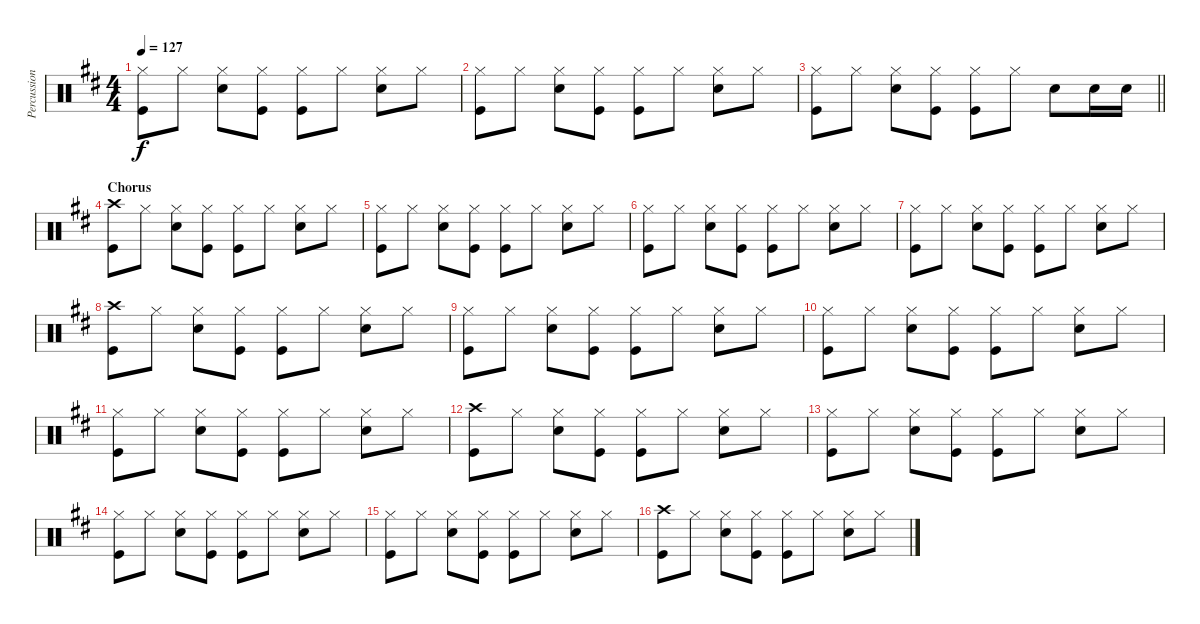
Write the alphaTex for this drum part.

\track ("Percussion" "Percussion") {instrument percussion}
\staff {score}
\articulation defaults
\ts (4 4)
\tempo 127
\clef neutral
\ks d
("Hi-Hat (closed)" "Kick (hit)").8{dy f} "Hi-Hat (closed)".8 ("Hi-Hat (closed)" "Snare (hit) 2").8 ("Hi-Hat (closed)" "Kick (hit)").8 ("Hi-Hat (closed)" "Kick (hit)").8 "Hi-Hat (closed)".8 ("Hi-Hat (closed)" "Snare (hit) 2").8 "Hi-Hat (closed)".8 |
("Hi-Hat (closed)" "Kick (hit)").8 "Hi-Hat (closed)".8 ("Hi-Hat (closed)" "Snare (hit) 2").8 ("Hi-Hat (closed)" "Kick (hit)").8 ("Hi-Hat (closed)" "Kick (hit)").8 "Hi-Hat (closed)".8 ("Hi-Hat (closed)" "Snare (hit) 2").8 "Hi-Hat (closed)".8 |
\barLineRight lightlight
("Hi-Hat (closed)" "Kick (hit)").8 "Hi-Hat (closed)".8 ("Hi-Hat (closed)" "Snare (hit) 2").8 ("Hi-Hat (closed)" "Kick (hit)").8 ("Hi-Hat (closed)" "Kick (hit)").8 "Hi-Hat (closed)".8 "Snare (hit) 2".8 "Snare (hit) 2".16 "Snare (hit) 2".16 |
\section ("" "Chorus")
("Crash high (hit)" "Kick (hit)").8 "Hi-Hat (closed)".8 ("Hi-Hat (closed)" "Snare (hit) 2").8 ("Hi-Hat (closed)" "Kick (hit)").8 ("Hi-Hat (closed)" "Kick (hit)").8 "Hi-Hat (closed)".8 ("Hi-Hat (closed)" "Snare (hit) 2").8 "Hi-Hat (closed)".8 |
("Hi-Hat (closed)" "Kick (hit)").8 "Hi-Hat (closed)".8 ("Hi-Hat (closed)" "Snare (hit) 2").8 ("Hi-Hat (closed)" "Kick (hit)").8 ("Hi-Hat (closed)" "Kick (hit)").8 "Hi-Hat (closed)".8 ("Hi-Hat (closed)" "Snare (hit) 2").8 "Hi-Hat (closed)".8 |
("Hi-Hat (closed)" "Kick (hit)").8 "Hi-Hat (closed)".8 ("Hi-Hat (closed)" "Snare (hit) 2").8 ("Hi-Hat (closed)" "Kick (hit)").8 ("Hi-Hat (closed)" "Kick (hit)").8 "Hi-Hat (closed)".8 ("Hi-Hat (closed)" "Snare (hit) 2").8 "Hi-Hat (closed)".8 |
("Hi-Hat (closed)" "Kick (hit)").8 "Hi-Hat (closed)".8 ("Hi-Hat (closed)" "Snare (hit) 2").8 ("Hi-Hat (closed)" "Kick (hit)").8 ("Hi-Hat (closed)" "Kick (hit)").8 "Hi-Hat (closed)".8 ("Hi-Hat (closed)" "Snare (hit) 2").8 "Hi-Hat (closed)".8 |
("Crash high (hit)" "Kick (hit)").8 "Hi-Hat (closed)".8 ("Hi-Hat (closed)" "Snare (hit) 2").8 ("Hi-Hat (closed)" "Kick (hit)").8 ("Hi-Hat (closed)" "Kick (hit)").8 "Hi-Hat (closed)".8 ("Hi-Hat (closed)" "Snare (hit) 2").8 "Hi-Hat (closed)".8 |
("Hi-Hat (closed)" "Kick (hit)").8 "Hi-Hat (closed)".8 ("Hi-Hat (closed)" "Snare (hit) 2").8 ("Hi-Hat (closed)" "Kick (hit)").8 ("Hi-Hat (closed)" "Kick (hit)").8 "Hi-Hat (closed)".8 ("Hi-Hat (closed)" "Snare (hit) 2").8 "Hi-Hat (closed)".8 |
("Hi-Hat (closed)" "Kick (hit)").8 "Hi-Hat (closed)".8 ("Hi-Hat (closed)" "Snare (hit) 2").8 ("Hi-Hat (closed)" "Kick (hit)").8 ("Hi-Hat (closed)" "Kick (hit)").8 "Hi-Hat (closed)".8 ("Hi-Hat (closed)" "Snare (hit) 2").8 "Hi-Hat (closed)".8 |
("Hi-Hat (closed)" "Kick (hit)").8 "Hi-Hat (closed)".8 ("Hi-Hat (closed)" "Snare (hit) 2").8 ("Hi-Hat (closed)" "Kick (hit)").8 ("Hi-Hat (closed)" "Kick (hit)").8 "Hi-Hat (closed)".8 ("Hi-Hat (closed)" "Snare (hit) 2").8 "Hi-Hat (closed)".8 |
("Crash high (hit)" "Kick (hit)").8 "Hi-Hat (closed)".8 ("Hi-Hat (closed)" "Snare (hit) 2").8 ("Hi-Hat (closed)" "Kick (hit)").8 ("Hi-Hat (closed)" "Kick (hit)").8 "Hi-Hat (closed)".8 ("Hi-Hat (closed)" "Snare (hit) 2").8 "Hi-Hat (closed)".8 |
("Hi-Hat (closed)" "Kick (hit)").8 "Hi-Hat (closed)".8 ("Hi-Hat (closed)" "Snare (hit) 2").8 ("Hi-Hat (closed)" "Kick (hit)").8 ("Hi-Hat (closed)" "Kick (hit)").8 "Hi-Hat (closed)".8 ("Hi-Hat (closed)" "Snare (hit) 2").8 "Hi-Hat (closed)".8 |
("Hi-Hat (closed)" "Kick (hit)").8 "Hi-Hat (closed)".8 ("Hi-Hat (closed)" "Snare (hit) 2").8 ("Hi-Hat (closed)" "Kick (hit)").8 ("Hi-Hat (closed)" "Kick (hit)").8 "Hi-Hat (closed)".8 ("Hi-Hat (closed)" "Snare (hit) 2").8 "Hi-Hat (closed)".8 |
("Hi-Hat (closed)" "Kick (hit)").8 "Hi-Hat (closed)".8 ("Hi-Hat (closed)" "Snare (hit) 2").8 ("Hi-Hat (closed)" "Kick (hit)").8 ("Hi-Hat (closed)" "Kick (hit)").8 "Hi-Hat (closed)".8 ("Hi-Hat (closed)" "Snare (hit) 2").8 "Hi-Hat (closed)".8 |
("Crash high (hit)" "Kick (hit)").8 "Hi-Hat (closed)".8 ("Hi-Hat (closed)" "Snare (hit) 2").8 ("Hi-Hat (closed)" "Kick (hit)").8 ("Hi-Hat (closed)" "Kick (hit)").8 "Hi-Hat (closed)".8 ("Hi-Hat (closed)" "Snare (hit) 2").8 "Hi-Hat (closed)".8
